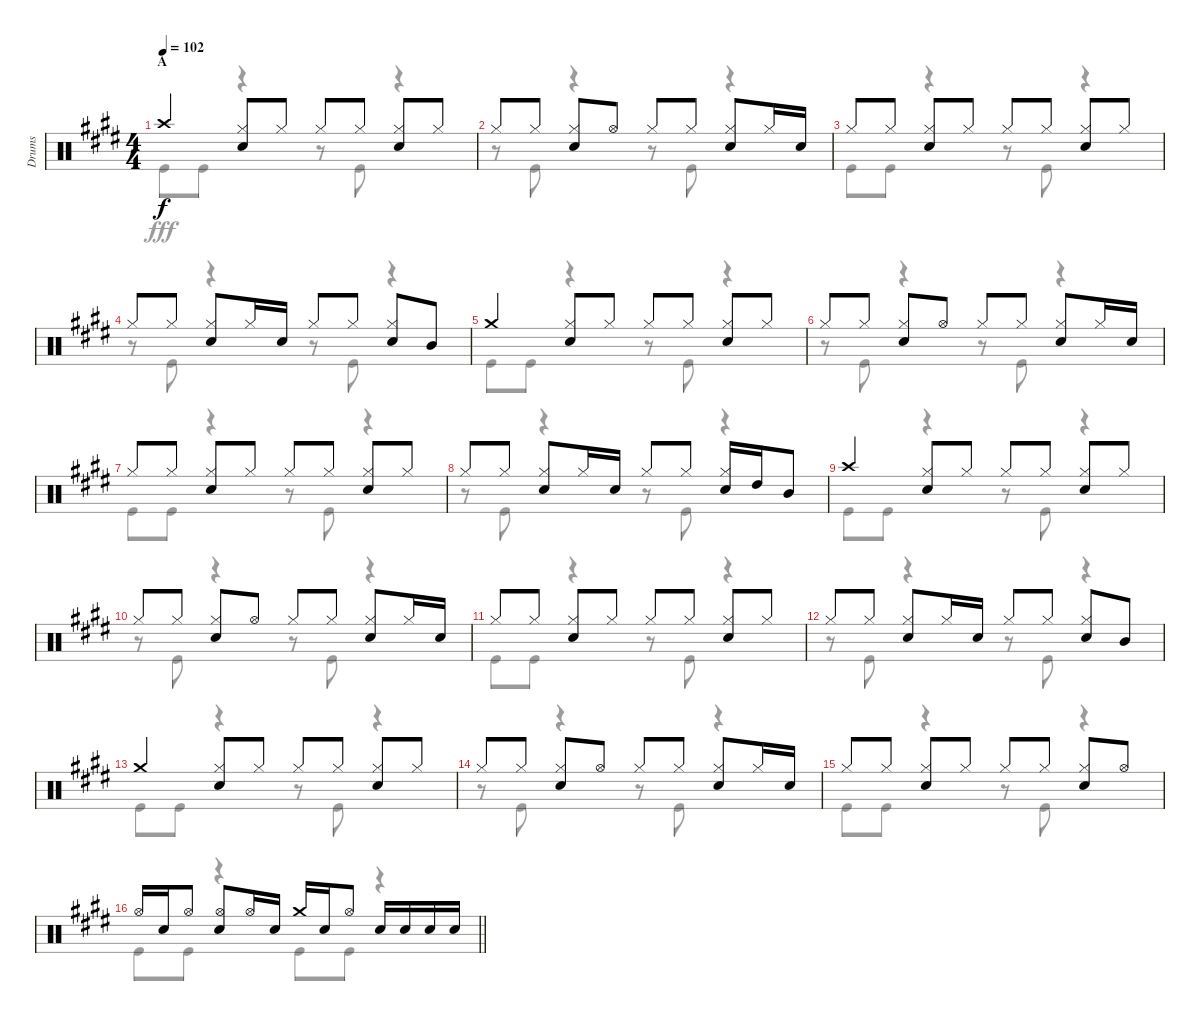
\track ("Drums" "Drums") {instrument percussion}
\staff {score}
\articulation defaults
\voice
\ts (4 4)
\section ("" "A")
\tempo 102
\clef neutral
\ks e "Crash high (hit)".4{dy f}
("Hi-Hat (closed)" "Snare (hit) 2").8 "Hi-Hat (closed)".8 "Hi-Hat (closed)".8 "Hi-Hat (closed)".8 ("Hi-Hat (closed)" "Snare (hit) 2").8 "Hi-Hat (closed)".8 |
"Hi-Hat (closed)".8 "Hi-Hat (closed)".8 ("Hi-Hat (closed)" "Snare (hit) 2").8 "Hi-Hat (open)".8 "Hi-Hat (closed)".8 "Hi-Hat (closed)".8 ("Hi-Hat (closed)" "Snare (hit) 2").8 "Hi-Hat (closed)".16 "Snare (hit) 2".16 |
"Hi-Hat (closed)".8 "Hi-Hat (closed)".8 ("Hi-Hat (closed)" "Snare (hit) 2").8 "Hi-Hat (closed)".8 "Hi-Hat (closed)".8 "Hi-Hat (closed)".8 ("Hi-Hat (closed)" "Snare (hit) 2").8 "Hi-Hat (closed)".8 |
"Hi-Hat (closed)".8 "Hi-Hat (closed)".8 ("Hi-Hat (closed)" "Snare (hit) 2").8 "Hi-Hat (closed)".16 "Snare (hit) 2".16 "Hi-Hat (closed)".8 "Hi-Hat (closed)".8 ("Hi-Hat (closed)" "Snare (hit) 2").8 "Mid Tom (hit)".8 |
"Crash medium (hit)".4 ("Hi-Hat (closed)" "Snare (hit) 2").8 "Hi-Hat (closed)".8 "Hi-Hat (closed)".8 "Hi-Hat (closed)".8 ("Hi-Hat (closed)" "Snare (hit) 2").8 "Hi-Hat (closed)".8 |
"Hi-Hat (closed)".8 "Hi-Hat (closed)".8 ("Hi-Hat (closed)" "Snare (hit) 2").8 "Hi-Hat (open)".8 "Hi-Hat (closed)".8 "Hi-Hat (closed)".8 ("Hi-Hat (closed)" "Snare (hit) 2").8 "Hi-Hat (closed)".16 "Snare (hit) 2".16 |
"Hi-Hat (closed)".8 "Hi-Hat (closed)".8 ("Hi-Hat (closed)" "Snare (hit) 2").8 "Hi-Hat (closed)".8 "Hi-Hat (closed)".8 "Hi-Hat (closed)".8 ("Hi-Hat (closed)" "Snare (hit) 2").8 "Hi-Hat (closed)".8 |
"Hi-Hat (closed)".8 "Hi-Hat (closed)".8 ("Hi-Hat (closed)" "Snare (hit) 2").8 "Hi-Hat (closed)".16 "Snare (hit) 2".16 "Hi-Hat (closed)".8 "Hi-Hat (closed)".8 ("Hi-Hat (closed)" "Snare (hit) 2").16 "High Tom (hit)".16 "Mid Tom (hit)".8 |
"Crash high (hit)".4 ("Hi-Hat (closed)" "Snare (hit) 2").8 "Hi-Hat (closed)".8 "Hi-Hat (closed)".8 "Hi-Hat (closed)".8 ("Hi-Hat (closed)" "Snare (hit) 2").8 "Hi-Hat (closed)".8 |
"Hi-Hat (closed)".8 "Hi-Hat (closed)".8 ("Hi-Hat (closed)" "Snare (hit) 2").8 "Hi-Hat (open)".8 "Hi-Hat (closed)".8 "Hi-Hat (closed)".8 ("Hi-Hat (closed)" "Snare (hit) 2").8 "Hi-Hat (closed)".16 "Snare (hit) 2".16 |
"Hi-Hat (closed)".8 "Hi-Hat (closed)".8 ("Hi-Hat (closed)" "Snare (hit) 2").8 "Hi-Hat (closed)".8 "Hi-Hat (closed)".8 "Hi-Hat (closed)".8 ("Hi-Hat (closed)" "Snare (hit) 2").8 "Hi-Hat (closed)".8 |
"Hi-Hat (closed)".8 "Hi-Hat (closed)".8 ("Hi-Hat (closed)" "Snare (hit) 2").8 "Hi-Hat (closed)".16 "Snare (hit) 2".16 "Hi-Hat (closed)".8 "Hi-Hat (closed)".8 ("Hi-Hat (closed)" "Snare (hit) 2").8 "Mid Tom (hit)".8 |
"Crash medium (hit)".4 ("Hi-Hat (closed)" "Snare (hit) 2").8 "Hi-Hat (closed)".8 "Hi-Hat (closed)".8 "Hi-Hat (closed)".8 ("Hi-Hat (closed)" "Snare (hit) 2").8 "Hi-Hat (closed)".8 |
"Hi-Hat (closed)".8 "Hi-Hat (closed)".8 ("Hi-Hat (closed)" "Snare (hit) 2").8 "Hi-Hat (open)".8 "Hi-Hat (closed)".8 "Hi-Hat (closed)".8 ("Hi-Hat (closed)" "Snare (hit) 2").8 "Hi-Hat (closed)".16 "Snare (hit) 2".16 |
"Hi-Hat (closed)".8 "Hi-Hat (closed)".8 ("Hi-Hat (closed)" "Snare (hit) 2").8 "Hi-Hat (closed)".8 "Hi-Hat (closed)".8 "Hi-Hat (closed)".8 ("Hi-Hat (closed)" "Snare (hit) 2").8 "Hi-Hat (open)".8 |
\barLineRight lightlight "Hi-Hat (open)".16 "Snare (hit) 2".16 "Hi-Hat (open)".8
("Hi-Hat (open)" "Snare (hit) 2").8 "Hi-Hat (open)".16 "Snare (hit) 2".16 "Crash medium (hit)".16 "Snare (hit) 2".16 "Hi-Hat (open)".8 "Snare (hit) 2".16 "Snare (hit) 2".16 "Snare (hit) 2".16 "Snare (hit) 2".16
\voice
\clef neutral
\ottava regular
\simile none
\ks e "Kick (hit)".8{dy fff} "Kick (hit)".8
r.4 r.8 "Kick (hit)".8 r.4 |
r.8 "Kick (hit)".8 r.4 r.8 "Kick (hit)".8 r.4 |
"Kick (hit)".8 "Kick (hit)".8 r.4 r.8 "Kick (hit)".8 r.4 |
r.8 "Kick (hit)".8 r.4 r.8 "Kick (hit)".8 r.4 |
"Kick (hit)".8 "Kick (hit)".8 r.4 r.8 "Kick (hit)".8 r.4 |
r.8 "Kick (hit)".8 r.4 r.8 "Kick (hit)".8 r.4 |
"Kick (hit)".8 "Kick (hit)".8 r.4 r.8 "Kick (hit)".8 r.4 |
r.8 "Kick (hit)".8 r.4 r.8 "Kick (hit)".8 r.4 |
"Kick (hit)".8 "Kick (hit)".8 r.4 r.8 "Kick (hit)".8 r.4 |
r.8 "Kick (hit)".8 r.4 r.8 "Kick (hit)".8 r.4 |
"Kick (hit)".8 "Kick (hit)".8 r.4 r.8 "Kick (hit)".8 r.4 |
r.8 "Kick (hit)".8 r.4 r.8 "Kick (hit)".8 r.4 |
"Kick (hit)".8 "Kick (hit)".8 r.4 r.8 "Kick (hit)".8 r.4 |
r.8 "Kick (hit)".8 r.4 r.8 "Kick (hit)".8 r.4 |
"Kick (hit)".8 "Kick (hit)".8 r.4 r.8 "Kick (hit)".8 r.4 |
\barLineRight lightlight "Kick (hit)".8 "Kick (hit)".8
r.4 "Kick (hit)".8 "Kick (hit)".8 r.4
